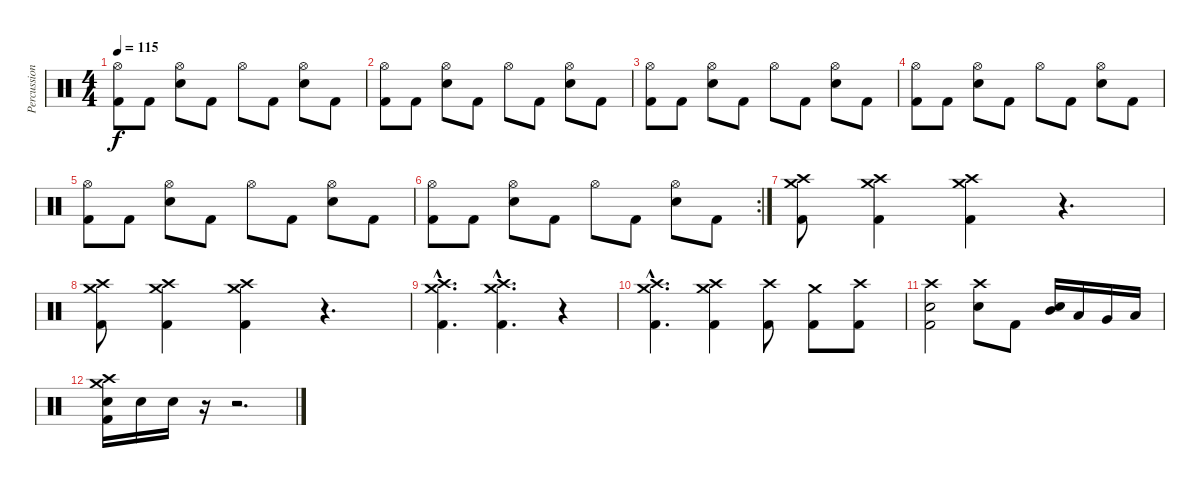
\track ("Percussion" "Percussion") {instrument percussion}
\staff {score}
\articulation defaults
\ts (4 4)
\tempo 115
\clef neutral
\ks c
("Hi-Hat (open)" "Kick (hit) 2").8{dy f} "Kick (hit) 2".8 ("Hi-Hat (open)" "Electric Snare (hit)").8 "Kick (hit) 2".8 "Hi-Hat (open)".8 "Kick (hit) 2".8 ("Hi-Hat (open)" "Electric Snare (hit)").8 "Kick (hit) 2".8 |
("Hi-Hat (open)" "Kick (hit) 2").8 "Kick (hit) 2".8 ("Hi-Hat (open)" "Electric Snare (hit)").8 "Kick (hit) 2".8 "Hi-Hat (open)".8 "Kick (hit) 2".8 ("Hi-Hat (open)" "Electric Snare (hit)").8 "Kick (hit) 2".8 |
("Hi-Hat (open)" "Kick (hit) 2").8 "Kick (hit) 2".8 ("Hi-Hat (open)" "Electric Snare (hit)").8 "Kick (hit) 2".8 "Hi-Hat (open)".8 "Kick (hit) 2".8 ("Hi-Hat (open)" "Electric Snare (hit)").8 "Kick (hit) 2".8 |
("Hi-Hat (open)" "Kick (hit) 2").8 "Kick (hit) 2".8 ("Hi-Hat (open)" "Electric Snare (hit)").8 "Kick (hit) 2".8 "Hi-Hat (open)".8 "Kick (hit) 2".8 ("Hi-Hat (open)" "Electric Snare (hit)").8 "Kick (hit) 2".8 |
("Hi-Hat (open)" "Kick (hit) 2").8 "Kick (hit) 2".8 ("Hi-Hat (open)" "Electric Snare (hit)").8 "Kick (hit) 2".8 "Hi-Hat (open)".8 "Kick (hit) 2".8 ("Hi-Hat (open)" "Electric Snare (hit)").8 "Kick (hit) 2".8 |
\rc 2
("Hi-Hat (open)" "Kick (hit) 2").8 "Kick (hit) 2".8 ("Hi-Hat (open)" "Electric Snare (hit)").8 "Kick (hit) 2".8 "Hi-Hat (open)".8 "Kick (hit) 2".8 ("Hi-Hat (open)" "Electric Snare (hit)").8 "Kick (hit) 2".8 |
("Kick (hit) 2" "Crash high (hit)" "Crash medium (hit)").8 ("Kick (hit) 2" "Crash high (hit)" "Crash medium (hit)").4 ("Kick (hit) 2" "Crash high (hit)" "Crash medium (hit)").4 r.4{d} |
("Kick (hit) 2" "Crash high (hit)" "Crash medium (hit)").8 ("Kick (hit) 2" "Crash high (hit)" "Crash medium (hit)").4 ("Kick (hit) 2" "Crash high (hit)" "Crash medium (hit)").4 r.4{d} |
("Kick (hit) 2"{hac} "Crash high (hit)"{hac} "Crash medium (hit)"{hac}).4{d} ("Kick (hit) 2"{hac} "Crash high (hit)"{hac} "Crash medium (hit)"{hac}).4{d} r.4 |
("Kick (hit) 2"{hac} "Crash high (hit)"{hac} "Crash medium (hit)"{hac}).4{d} ("Kick (hit) 2" "Crash high (hit)" "Crash medium (hit)").4 ("Kick (hit) 2" "Crash high (hit)").8 ("Kick (hit) 2" "Crash medium (hit)").8 ("Kick (hit) 2" "Crash high (hit)").8 |
("Kick (hit) 2" "Electric Snare (hit)" "Crash high (hit)").2 ("Electric Snare (hit)" "Crash high (hit)").8 "Kick (hit) 2".8 ("Electric Snare (hit)" "Mid Tom (hit)").16 "Low Tom (hit)".16 "Very Low Tom (hit)".16 "Low Floor Tom (hit)".16 |
("Electric Snare (hit)" "Crash high (hit)" "Crash medium (hit)" "Kick (hit) 2").16 "Electric Snare (hit)".16 "Electric Snare (hit)".16 r.16 r.2{d}
